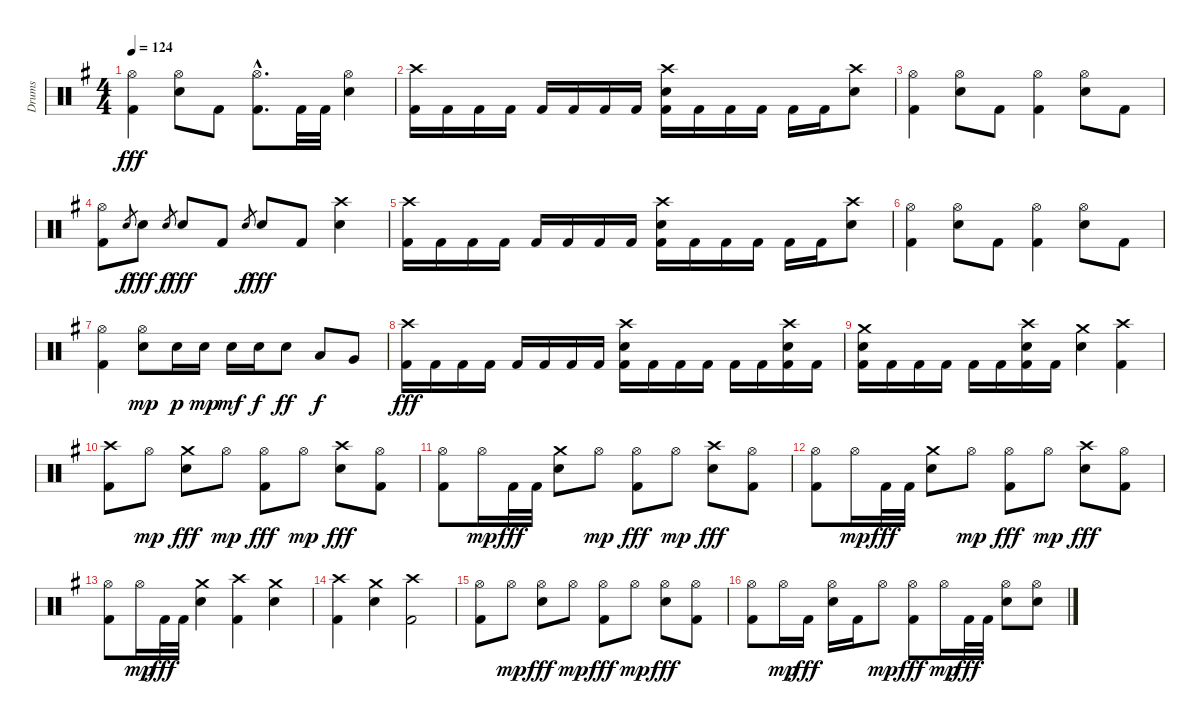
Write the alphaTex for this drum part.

\track ("Drums" "Drums") {instrument percussion}
\staff {score}
\articulation defaults
\ts (4 4)
\tempo 124
\clef neutral
\ks g
("Hi-Hat (open)" "Kick (hit) 2").4{dy fff} ("Hi-Hat (open)" "Electric Snare (hit)").8 "Kick (hit) 2".8 ("Hi-Hat (open)"{hac} "Kick (hit) 2"{hac}).8{d} "Kick (hit) 2".32 "Kick (hit) 2".32 ("Hi-Hat (open)" "Electric Snare (hit)").4 |
("Crash high (hit)" "Kick (hit) 2").16 "Kick (hit) 2".16 "Kick (hit) 2".16 "Kick (hit) 2".16 "Kick (hit) 2".16 "Kick (hit) 2".16 "Kick (hit) 2".16 "Kick (hit) 2".16 ("Crash high (hit)" "Electric Snare (hit)" "Kick (hit) 2").16 "Kick (hit) 2".16 "Kick (hit) 2".16 "Kick (hit) 2".16 "Kick (hit) 2".16 "Kick (hit) 2".16 ("Crash high (hit)" "Electric Snare (hit)").8 |
("Hi-Hat (open)" "Kick (hit) 2").4 ("Hi-Hat (open)" "Electric Snare (hit)").8 "Kick (hit) 2".8 ("Hi-Hat (open)" "Kick (hit) 2").4 ("Hi-Hat (open)" "Electric Snare (hit)").8 "Kick (hit) 2".8 |
("Hi-Hat (open)" "Kick (hit) 2").8 "Electric Snare (hit)".8{gr dy f} "Electric Snare (hit)".8{dy fff} "Electric Snare (hit)".8{gr dy f} "Electric Snare (hit)".8{dy fff} "Kick (hit) 2".8 "Electric Snare (hit)".8{gr dy f} "Electric Snare (hit)".8{dy fff} "Kick (hit) 2".8 ("Crash high (hit)" "Electric Snare (hit)").4 |
("Crash high (hit)" "Kick (hit) 2").16 "Kick (hit) 2".16 "Kick (hit) 2".16 "Kick (hit) 2".16 "Kick (hit) 2".16 "Kick (hit) 2".16 "Kick (hit) 2".16 "Kick (hit) 2".16 ("Crash high (hit)" "Electric Snare (hit)" "Kick (hit) 2").16 "Kick (hit) 2".16 "Kick (hit) 2".16 "Kick (hit) 2".16 "Kick (hit) 2".16 "Kick (hit) 2".16 ("Crash high (hit)" "Electric Snare (hit)").8 |
("Hi-Hat (open)" "Kick (hit) 2").4 ("Hi-Hat (open)" "Electric Snare (hit)").8 "Kick (hit) 2".8 ("Hi-Hat (open)" "Kick (hit) 2").4 ("Hi-Hat (open)" "Electric Snare (hit)").8 "Kick (hit) 2".8 |
("Hi-Hat (open)" "Kick (hit) 2").4 ("Hi-Hat (open)" "Electric Snare (hit)").8{dy mp} "Electric Snare (hit)".16{dy p} "Electric Snare (hit)".16{dy mp} "Electric Snare (hit)".16{dy mf} "Electric Snare (hit)".16{dy f} "Electric Snare (hit)".8{dy ff} "Low Tom (hit)".8{dy f} "Very Low Tom (hit)".8 |
("Crash high (hit)" "Kick (hit) 2").16{dy fff} "Kick (hit) 2".16 "Kick (hit) 2".16 "Kick (hit) 2".16 "Kick (hit) 2".16 "Kick (hit) 2".16 "Kick (hit) 2".16 "Kick (hit) 2".16 ("Crash high (hit)" "Electric Snare (hit)" "Kick (hit) 2").16 "Kick (hit) 2".16 "Kick (hit) 2".16 "Kick (hit) 2".16 "Kick (hit) 2".16 "Kick (hit) 2".16 ("Crash high (hit)" "Electric Snare (hit)" "Kick (hit) 2").16 "Kick (hit) 2".16 |
("Crash medium (hit)" "Electric Snare (hit)" "Kick (hit) 2").16 "Kick (hit) 2".16 "Kick (hit) 2".16 "Kick (hit) 2".16 "Kick (hit) 2".16 "Kick (hit) 2".16 ("Crash high (hit)" "Electric Snare (hit)" "Kick (hit) 2").16 "Kick (hit) 2".16 ("Crash medium (hit)" "Electric Snare (hit)").4 ("Crash high (hit)" "Kick (hit) 2").4 |
("Crash high (hit)" "Kick (hit) 2").8 "Hi-Hat (open)".8{dy mp} ("Crash medium (hit)" "Electric Snare (hit)").8{dy fff} "Hi-Hat (open)".8{dy mp} ("Hi-Hat (open)" "Kick (hit) 2").8{dy fff} "Hi-Hat (open)".8{dy mp} ("Crash high (hit)" "Electric Snare (hit)").8{dy fff} ("Hi-Hat (open)" "Kick (hit) 2").8 |
("Hi-Hat (open)" "Kick (hit) 2").8 "Hi-Hat (open)".16{dy mp} "Kick (hit) 2".32{dy fff} "Kick (hit) 2".32 ("Crash medium (hit)" "Electric Snare (hit)").8 "Hi-Hat (open)".8{dy mp} ("Hi-Hat (open)" "Kick (hit) 2").8{dy fff} "Hi-Hat (open)".8{dy mp} ("Crash high (hit)" "Electric Snare (hit)").8{dy fff} ("Hi-Hat (open)" "Kick (hit) 2").8 |
("Hi-Hat (open)" "Kick (hit) 2").8 "Hi-Hat (open)".16{dy mp} "Kick (hit) 2".32{dy fff} "Kick (hit) 2".32 ("Crash medium (hit)" "Electric Snare (hit)").8 "Hi-Hat (open)".8{dy mp} ("Hi-Hat (open)" "Kick (hit) 2").8{dy fff} "Hi-Hat (open)".8{dy mp} ("Crash high (hit)" "Electric Snare (hit)").8{dy fff} ("Hi-Hat (open)" "Kick (hit) 2").8 |
("Hi-Hat (open)" "Kick (hit) 2").8 "Hi-Hat (open)".16{dy mp} "Kick (hit) 2".32{dy fff} "Kick (hit) 2".32 ("Crash medium (hit)" "Electric Snare (hit)").4 ("Crash high (hit)" "Kick (hit) 2").4 ("Crash medium (hit)" "Electric Snare (hit)").4 |
("Crash high (hit)" "Kick (hit) 2").4 ("Crash medium (hit)" "Electric Snare (hit)").4 ("Crash high (hit)" "Kick (hit) 2").2 |
("Hi-Hat (open)" "Kick (hit) 2").8 "Hi-Hat (open)".8{dy mp} ("Hi-Hat (open)" "Electric Snare (hit)").8{dy fff} "Hi-Hat (open)".8{dy mp} ("Hi-Hat (open)" "Kick (hit) 2").8{dy fff} "Hi-Hat (open)".8{dy mp} ("Hi-Hat (open)" "Electric Snare (hit)").8{dy fff} ("Hi-Hat (open)" "Kick (hit) 2").8 |
("Hi-Hat (open)" "Kick (hit) 2").8 "Hi-Hat (open)".16{dy mp} "Kick (hit) 2".16{dy fff} ("Hi-Hat (open)" "Electric Snare (hit)").16 "Kick (hit) 2".16 "Hi-Hat (open)".8{dy mp} ("Hi-Hat (open)" "Kick (hit) 2").8{dy fff} "Hi-Hat (open)".16{dy mp} "Kick (hit) 2".32{dy fff} "Kick (hit) 2".32 ("Hi-Hat (open)" "Electric Snare (hit)").8 ("Hi-Hat (open)" "Electric Snare (hit)").8
